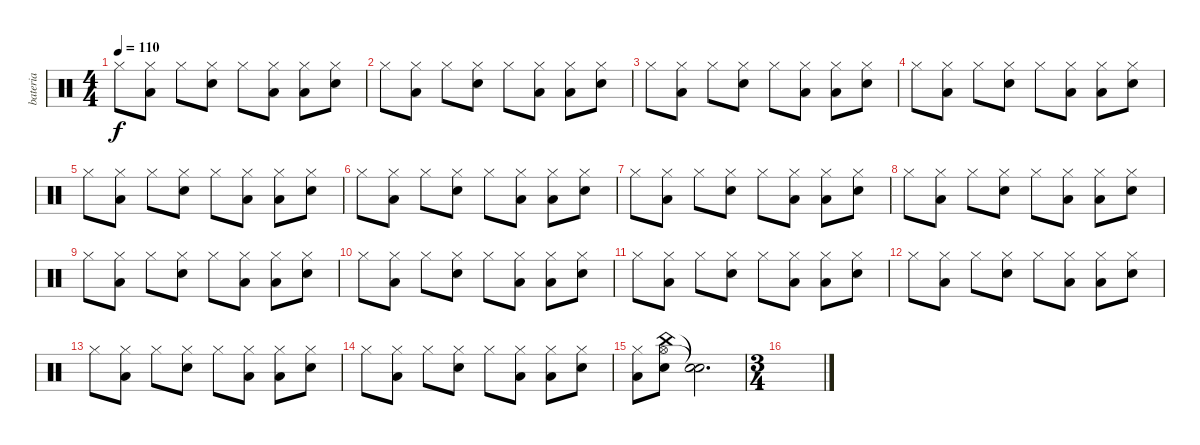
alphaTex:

\track ("bateria" "bateria") {instrument percussion}
\staff {score}
\articulation defaults
\ts (4 4)
\tempo 110
\clef neutral
\ks c "Hi-Hat (closed)".8{dy f}
("Hi-Hat (closed)" "Low Floor Tom (hit)").8 "Hi-Hat (closed)".8 ("Hi-Hat (closed)" "Electric Snare (hit)").8 "Hi-Hat (closed)".8 ("Hi-Hat (closed)" "Low Floor Tom (hit)").8 ("Hi-Hat (closed)" "Low Floor Tom (hit)").8 ("Hi-Hat (closed)" "Electric Snare (hit)").8 |
"Hi-Hat (closed)".8 ("Hi-Hat (closed)" "Low Floor Tom (hit)").8 "Hi-Hat (closed)".8 ("Hi-Hat (closed)" "Electric Snare (hit)").8 "Hi-Hat (closed)".8 ("Hi-Hat (closed)" "Low Floor Tom (hit)").8 ("Hi-Hat (closed)" "Low Floor Tom (hit)").8 ("Hi-Hat (closed)" "Electric Snare (hit)").8 |
"Hi-Hat (closed)".8 ("Hi-Hat (closed)" "Low Floor Tom (hit)").8 "Hi-Hat (closed)".8 ("Hi-Hat (closed)" "Electric Snare (hit)").8 "Hi-Hat (closed)".8 ("Hi-Hat (closed)" "Low Floor Tom (hit)").8 ("Hi-Hat (closed)" "Low Floor Tom (hit)").8 ("Hi-Hat (closed)" "Electric Snare (hit)").8 |
"Hi-Hat (closed)".8 ("Hi-Hat (closed)" "Low Floor Tom (hit)").8 "Hi-Hat (closed)".8 ("Hi-Hat (closed)" "Electric Snare (hit)").8 "Hi-Hat (closed)".8 ("Hi-Hat (closed)" "Low Floor Tom (hit)").8 ("Hi-Hat (closed)" "Low Floor Tom (hit)").8 ("Hi-Hat (closed)" "Electric Snare (hit)").8 |
"Hi-Hat (closed)".8 ("Hi-Hat (closed)" "Low Floor Tom (hit)").8 "Hi-Hat (closed)".8 ("Hi-Hat (closed)" "Electric Snare (hit)").8 "Hi-Hat (closed)".8 ("Hi-Hat (closed)" "Low Floor Tom (hit)").8 ("Hi-Hat (closed)" "Low Floor Tom (hit)").8 ("Hi-Hat (closed)" "Electric Snare (hit)").8 |
"Hi-Hat (closed)".8 ("Hi-Hat (closed)" "Low Floor Tom (hit)").8 "Hi-Hat (closed)".8 ("Hi-Hat (closed)" "Electric Snare (hit)").8 "Hi-Hat (closed)".8 ("Hi-Hat (closed)" "Low Floor Tom (hit)").8 ("Hi-Hat (closed)" "Low Floor Tom (hit)").8 ("Hi-Hat (closed)" "Electric Snare (hit)").8 |
"Hi-Hat (closed)".8 ("Hi-Hat (closed)" "Low Floor Tom (hit)").8 "Hi-Hat (closed)".8 ("Hi-Hat (closed)" "Electric Snare (hit)").8 "Hi-Hat (closed)".8 ("Hi-Hat (closed)" "Low Floor Tom (hit)").8 ("Hi-Hat (closed)" "Low Floor Tom (hit)").8 ("Hi-Hat (closed)" "Electric Snare (hit)").8 |
"Hi-Hat (closed)".8 ("Hi-Hat (closed)" "Low Floor Tom (hit)").8 "Hi-Hat (closed)".8 ("Hi-Hat (closed)" "Electric Snare (hit)").8 "Hi-Hat (closed)".8 ("Hi-Hat (closed)" "Low Floor Tom (hit)").8 ("Hi-Hat (closed)" "Low Floor Tom (hit)").8 ("Hi-Hat (closed)" "Electric Snare (hit)").8 |
"Hi-Hat (closed)".8 ("Hi-Hat (closed)" "Low Floor Tom (hit)").8 "Hi-Hat (closed)".8 ("Hi-Hat (closed)" "Electric Snare (hit)").8 "Hi-Hat (closed)".8 ("Hi-Hat (closed)" "Low Floor Tom (hit)").8 ("Hi-Hat (closed)" "Low Floor Tom (hit)").8 ("Hi-Hat (closed)" "Electric Snare (hit)").8 |
"Hi-Hat (closed)".8 ("Hi-Hat (closed)" "Low Floor Tom (hit)").8 "Hi-Hat (closed)".8 ("Hi-Hat (closed)" "Electric Snare (hit)").8 "Hi-Hat (closed)".8 ("Hi-Hat (closed)" "Low Floor Tom (hit)").8 ("Hi-Hat (closed)" "Low Floor Tom (hit)").8 ("Hi-Hat (closed)" "Electric Snare (hit)").8 |
"Hi-Hat (closed)".8 ("Hi-Hat (closed)" "Low Floor Tom (hit)").8 "Hi-Hat (closed)".8 ("Hi-Hat (closed)" "Electric Snare (hit)").8 "Hi-Hat (closed)".8 ("Hi-Hat (closed)" "Low Floor Tom (hit)").8 ("Hi-Hat (closed)" "Low Floor Tom (hit)").8 ("Hi-Hat (closed)" "Electric Snare (hit)").8 |
"Hi-Hat (closed)".8 ("Hi-Hat (closed)" "Low Floor Tom (hit)").8 "Hi-Hat (closed)".8 ("Hi-Hat (closed)" "Electric Snare (hit)").8 "Hi-Hat (closed)".8 ("Hi-Hat (closed)" "Low Floor Tom (hit)").8 ("Hi-Hat (closed)" "Low Floor Tom (hit)").8 ("Hi-Hat (closed)" "Electric Snare (hit)").8 |
"Hi-Hat (closed)".8 ("Hi-Hat (closed)" "Low Floor Tom (hit)").8 "Hi-Hat (closed)".8 ("Hi-Hat (closed)" "Electric Snare (hit)").8 "Hi-Hat (closed)".8 ("Hi-Hat (closed)" "Low Floor Tom (hit)").8 ("Hi-Hat (closed)" "Low Floor Tom (hit)").8 ("Hi-Hat (closed)" "Electric Snare (hit)").8 |
"Hi-Hat (closed)".8 ("Hi-Hat (closed)" "Low Floor Tom (hit)").8 "Hi-Hat (closed)".8 ("Hi-Hat (closed)" "Electric Snare (hit)").8 "Hi-Hat (closed)".8 ("Hi-Hat (closed)" "Low Floor Tom (hit)").8 ("Hi-Hat (closed)" "Low Floor Tom (hit)").8 ("Hi-Hat (closed)" "Electric Snare (hit)").8 |
("Hi-Hat (closed)" "Low Floor Tom (hit)").8 ("Hi-Hat (open)" "China (hit)" "Electric Snare (hit)").8 ("Snare (hit)"{t} "Snare (hit)"{t}).2{d} |
\ts (3 4)
